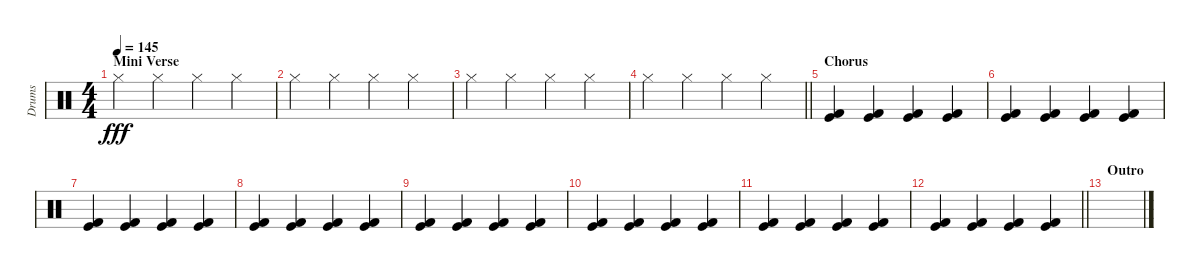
\track ("Drums" "Drums") {instrument percussion}
\staff {score}
\articulation defaults
\ts (4 4)
\section ("" "Mini Verse")
\tempo 145
\clef neutral
\ks c "Hi-Hat (closed)".4{dy fff} "Hi-Hat (closed)".4 "Hi-Hat (closed)".4 "Hi-Hat (closed)".4
|
"Hi-Hat (closed)".4 "Hi-Hat (closed)".4 "Hi-Hat (closed)".4 "Hi-Hat (closed)".4 |
"Hi-Hat (closed)".4 "Hi-Hat (closed)".4 "Hi-Hat (closed)".4 "Hi-Hat (closed)".4 |
\barLineRight lightlight "Hi-Hat (closed)".4 "Hi-Hat (closed)".4 "Hi-Hat (closed)".4 "Hi-Hat (closed)".4
|
\section ("" "Chorus")
("Kick (hit)" "Kick (hit) 2").4 ("Kick (hit)" "Kick (hit) 2").4 ("Kick (hit)" "Kick (hit) 2").4 ("Kick (hit)" "Kick (hit) 2").4 |
("Kick (hit)" "Kick (hit) 2").4 ("Kick (hit)" "Kick (hit) 2").4 ("Kick (hit)" "Kick (hit) 2").4 ("Kick (hit)" "Kick (hit) 2").4 |
("Kick (hit)" "Kick (hit) 2").4 ("Kick (hit)" "Kick (hit) 2").4 ("Kick (hit)" "Kick (hit) 2").4 ("Kick (hit)" "Kick (hit) 2").4 |
("Kick (hit)" "Kick (hit) 2").4 ("Kick (hit)" "Kick (hit) 2").4 ("Kick (hit)" "Kick (hit) 2").4 ("Kick (hit)" "Kick (hit) 2").4 |
("Kick (hit)" "Kick (hit) 2").4 ("Kick (hit)" "Kick (hit) 2").4 ("Kick (hit)" "Kick (hit) 2").4 ("Kick (hit)" "Kick (hit) 2").4 |
("Kick (hit)" "Kick (hit) 2").4 ("Kick (hit)" "Kick (hit) 2").4 ("Kick (hit)" "Kick (hit) 2").4 ("Kick (hit)" "Kick (hit) 2").4 |
("Kick (hit)" "Kick (hit) 2").4 ("Kick (hit)" "Kick (hit) 2").4 ("Kick (hit)" "Kick (hit) 2").4 ("Kick (hit)" "Kick (hit) 2").4 |
\barLineRight lightlight
("Kick (hit)" "Kick (hit) 2").4 ("Kick (hit)" "Kick (hit) 2").4 ("Kick (hit)" "Kick (hit) 2").4 ("Kick (hit)" "Kick (hit) 2").4 |
\section ("" "Outro")
